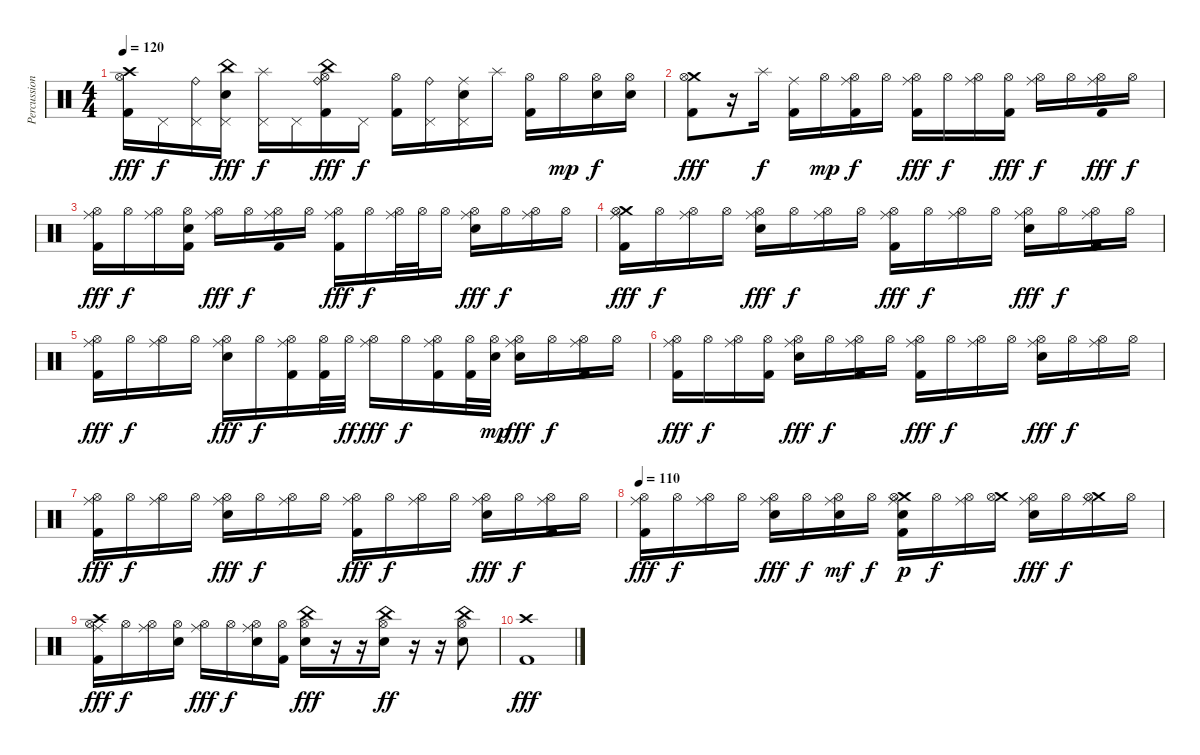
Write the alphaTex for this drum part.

\track ("Percussion" "Percussion") {instrument percussion}
\staff {score}
\articulation defaults
\ts (4 4)
\tempo 120
\clef neutral
\ks c
("Crash high (hit)" "Hi-Hat (open)" "Kick (hit) 2").16{dy fff} "Pedal Hi-Hat (hit)".16{dy f} ("Ride (bell)" "Pedal Hi-Hat (hit)").16 ("China (hit)" "Pedal Hi-Hat (hit)" "Electric Snare (hit)").16{dy fff} ("Splash (hit)" "Pedal Hi-Hat (hit)").16{dy f} "Pedal Hi-Hat (hit)".16 ("China (hit)" "Ride (bell)" "Hi-Hat (open)" "Kick (hit) 2").16{dy fff} "Pedal Hi-Hat (hit)".16{dy f} ("Hi-Hat (open)" "Kick (hit) 2").16 ("Pedal Hi-Hat (hit)" "Ride (bell)").16 ("Pedal Hi-Hat (hit)" "Ride (middle)" "Electric Snare (hit)").16 "Splash (hit)".16 ("Hi-Hat (open)" "Kick (hit) 2").16 "Hi-Hat (open)".16{dy mp} ("Hi-Hat (open)" "Electric Snare (hit)").16{dy f} ("Hi-Hat (open)" "Electric Snare (hit)").16 |
("Crash medium (hit)" "Hi-Hat (open)" "Kick (hit) 2").8{dy fff} r.16 "Splash (hit)".16{dy f} ("Ride (middle)" "Kick (hit) 2").16 "Hi-Hat (open)".16{dy mp} ("Ride (middle)" "Hi-Hat (open)" "Kick (hit) 2").16{dy f} "Hi-Hat (open)".16 ("Ride (middle)" "Hi-Hat (open)" "Kick (hit) 2").16{dy fff} "Hi-Hat (open)".16{dy f} ("Ride (middle)" "Hi-Hat (open)").16 ("Hi-Hat (open)" "Kick (hit) 2").16{dy fff} ("Ride (middle)" "Hi-Hat (open)").16{dy f} "Hi-Hat (open)".16 ("Ride (middle)" "Hi-Hat (open)" "Kick (hit) 2").16{dy fff} "Hi-Hat (open)".16{dy f} |
("Ride (middle)" "Hi-Hat (open)" "Kick (hit) 2").16{dy fff} "Hi-Hat (open)".16{dy f} ("Ride (middle)" "Hi-Hat (open)").16 ("Hi-Hat (open)" "Electric Snare (hit)" "Kick (hit) 2").16 ("Ride (middle)" "Hi-Hat (open)").16{dy fff} "Hi-Hat (open)".16{dy f} ("Ride (middle)" "Hi-Hat (open)" "Kick (hit) 2").16 "Hi-Hat (open)".16 ("Ride (middle)" "Hi-Hat (open)" "Kick (hit) 2").16{dy fff} "Hi-Hat (open)".16{dy f} ("Ride (middle)" "Hi-Hat (open)").32 "Hi-Hat (open)".32 "Hi-Hat (open)".16 ("Ride (middle)" "Hi-Hat (open)" "Electric Snare (hit)").16{dy fff} "Hi-Hat (open)".16{dy f} ("Ride (middle)" "Hi-Hat (open)").16 "Hi-Hat (open)".16 |
("Crash medium (hit)" "Ride (middle)" "Hi-Hat (open)" "Kick (hit) 2").16{dy fff} "Hi-Hat (open)".16{dy f} ("Ride (middle)" "Hi-Hat (open)").16 "Hi-Hat (open)".16 ("Ride (middle)" "Hi-Hat (open)" "Electric Snare (hit)").16{dy fff} "Hi-Hat (open)".16{dy f} ("Ride (middle)" "Hi-Hat (open)").16 "Hi-Hat (open)".16 ("Ride (middle)" "Hi-Hat (open)" "Kick (hit) 2").16{dy fff} "Hi-Hat (open)".16{dy f} ("Ride (middle)" "Hi-Hat (open)").16 "Hi-Hat (open)".16 ("Ride (middle)" "Hi-Hat (open)" "Electric Snare (hit)").16{dy fff} "Hi-Hat (open)".16{dy f} ("Ride (middle)" "Hi-Hat (open)" "Kick (hit) 2").16 "Hi-Hat (open)".16 |
("Ride (middle)" "Hi-Hat (open)" "Kick (hit) 2").16{dy fff} "Hi-Hat (open)".16{dy f} ("Ride (middle)" "Hi-Hat (open)").16 "Hi-Hat (open)".16 ("Ride (middle)" "Hi-Hat (open)" "Electric Snare (hit)").16{dy fff} "Hi-Hat (open)".16{dy f} ("Ride (middle)" "Hi-Hat (open)" "Kick (hit) 2").16 ("Hi-Hat (open)" "Kick (hit) 2").32 "Hi-Hat (open)".32{dy ff} ("Ride (middle)" "Hi-Hat (open)").16{dy fff} "Hi-Hat (open)".16{dy f} ("Ride (middle)" "Hi-Hat (open)" "Kick (hit) 2").16 ("Hi-Hat (open)" "Kick (hit) 2").32 ("Hi-Hat (open)" "Electric Snare (hit)").32{dy mp} ("Ride (middle)" "Hi-Hat (open)" "Electric Snare (hit)").16{dy fff} "Hi-Hat (open)".16{dy f} ("Ride (middle)" "Hi-Hat (open)" "Kick (hit) 2").16 "Hi-Hat (open)".16 |
("Ride (middle)" "Hi-Hat (open)" "Kick (hit) 2").16{dy fff} "Hi-Hat (open)".16{dy f} ("Ride (middle)" "Hi-Hat (open)").16 ("Hi-Hat (open)" "Kick (hit) 2").16 ("Ride (middle)" "Hi-Hat (open)" "Electric Snare (hit)").16{dy fff} "Hi-Hat (open)".16{dy f} ("Ride (middle)" "Hi-Hat (open)" "Kick (hit) 2").16 "Hi-Hat (open)".16 ("Ride (middle)" "Hi-Hat (open)" "Kick (hit) 2").16{dy fff} "Hi-Hat (open)".16{dy f} ("Ride (middle)" "Hi-Hat (open)").16 "Hi-Hat (open)".16 ("Ride (middle)" "Hi-Hat (open)" "Electric Snare (hit)").16{dy fff} "Hi-Hat (open)".16{dy f} ("Ride (middle)" "Hi-Hat (open)").16 "Hi-Hat (open)".16 |
("Ride (middle)" "Hi-Hat (open)" "Kick (hit) 2").16{dy fff} "Hi-Hat (open)".16{dy f} ("Ride (middle)" "Hi-Hat (open)").16 "Hi-Hat (open)".16 ("Ride (middle)" "Hi-Hat (open)" "Electric Snare (hit)").16{dy fff} "Hi-Hat (open)".16{dy f} ("Ride (middle)" "Hi-Hat (open)").16 "Hi-Hat (open)".16 ("Ride (middle)" "Hi-Hat (open)" "Kick (hit) 2").16{dy fff} "Hi-Hat (open)".16{dy f} ("Ride (middle)" "Hi-Hat (open)").16 "Hi-Hat (open)".16 ("Ride (middle)" "Hi-Hat (open)" "Electric Snare (hit)").16{dy fff} "Hi-Hat (open)".16{dy f} ("Ride (middle)" "Hi-Hat (open)" "Kick (hit) 2").16 "Hi-Hat (open)".16 |
\tempo 110
("Ride (middle)" "Hi-Hat (open)" "Kick (hit) 2").16{dy fff} "Hi-Hat (open)".16{dy f} ("Ride (middle)" "Hi-Hat (open)").16 "Hi-Hat (open)".16 ("Ride (middle)" "Hi-Hat (open)" "Electric Snare (hit)").16{dy fff} "Hi-Hat (open)".16{dy f} ("Ride (middle)" "Hi-Hat (open)" "Electric Snare (hit)").16{dy mf} "Hi-Hat (open)".16{dy f} ("Crash medium (hit)" "Ride (middle)" "Hi-Hat (open)" "Electric Snare (hit)" "Kick (hit) 2").16{dy p} "Hi-Hat (open)".16{dy f} ("Ride (middle)" "Hi-Hat (open)").16 ("Crash medium (hit)" "Hi-Hat (open)").16 ("Ride (middle)" "Hi-Hat (open)" "Electric Snare (hit)").16{dy fff} "Hi-Hat (open)".16{dy f} ("Crash medium (hit)" "Ride (middle)" "Hi-Hat (open)").16 "Hi-Hat (open)".16 |
("Crash high (hit)" "Ride (middle)" "Hi-Hat (open)" "Kick (hit) 2").16{dy fff} "Hi-Hat (open)".16{dy f} ("Ride (middle)" "Hi-Hat (open)").16 ("Hi-Hat (open)" "Electric Snare (hit)").16 ("Ride (middle)" "Hi-Hat (open)").16{dy fff} "Hi-Hat (open)".16{dy f} ("Ride (middle)" "Hi-Hat (open)" "Electric Snare (hit)").16 ("Hi-Hat (open)" "Kick (hit) 2").16 ("China (hit)" "Hi-Hat (open)" "Electric Snare (hit)").16{dy fff} r.16 r.16 ("China (hit)" "Hi-Hat (open)" "Electric Snare (hit)").16{dy ff} r.16 r.16 ("China (hit)" "Hi-Hat (open)" "Electric Snare (hit)").8 |
("Crash high (hit)" "Kick (hit) 2").1{dy fff}
